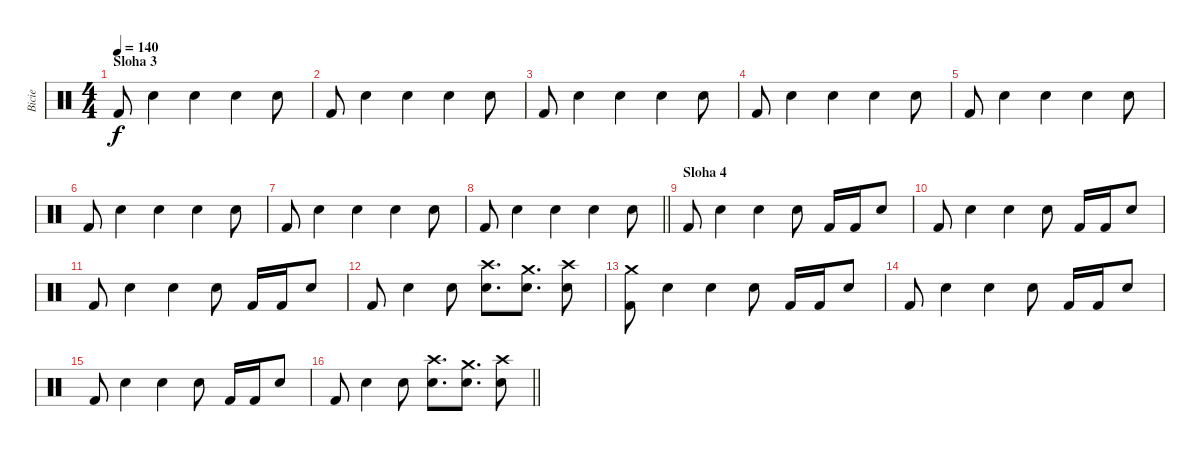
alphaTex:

\track ("Bicie" "Bicie") {instrument percussion}
\staff {score}
\articulation defaults
\ts (4 4)
\section ("" "Sloha 3")
\tempo 140
\clef neutral
\ks c "Kick (hit) 2".8{dy f} "Snare (hit) 2".4 "Snare (hit) 2".4 "Snare (hit) 2".4 "Snare (hit) 2".8
|
"Kick (hit) 2".8 "Snare (hit) 2".4 "Snare (hit) 2".4 "Snare (hit) 2".4 "Snare (hit) 2".8 |
"Kick (hit) 2".8 "Snare (hit) 2".4 "Snare (hit) 2".4 "Snare (hit) 2".4 "Snare (hit) 2".8 |
"Kick (hit) 2".8 "Snare (hit) 2".4 "Snare (hit) 2".4 "Snare (hit) 2".4 "Snare (hit) 2".8 |
"Kick (hit) 2".8 "Snare (hit) 2".4 "Snare (hit) 2".4 "Snare (hit) 2".4 "Snare (hit) 2".8 |
"Kick (hit) 2".8 "Snare (hit) 2".4 "Snare (hit) 2".4 "Snare (hit) 2".4 "Snare (hit) 2".8 |
"Kick (hit) 2".8 "Snare (hit) 2".4 "Snare (hit) 2".4 "Snare (hit) 2".4 "Snare (hit) 2".8 |
\barLineRight lightlight "Kick (hit) 2".8 "Snare (hit) 2".4 "Snare (hit) 2".4 "Snare (hit) 2".4 "Snare (hit) 2".8
|
\section ("" "Sloha 4")
"Kick (hit) 2".8 "Snare (hit) 2".4 "Snare (hit) 2".4 "Snare (hit) 2".8 "Kick (hit) 2".16 "Kick (hit) 2".16 "Snare (hit) 2".8 |
"Kick (hit) 2".8 "Snare (hit) 2".4 "Snare (hit) 2".4 "Snare (hit) 2".8 "Kick (hit) 2".16 "Kick (hit) 2".16 "Snare (hit) 2".8 |
"Kick (hit) 2".8 "Snare (hit) 2".4 "Snare (hit) 2".4 "Snare (hit) 2".8 "Kick (hit) 2".16 "Kick (hit) 2".16 "Snare (hit) 2".8 |
"Kick (hit) 2".8 "Snare (hit) 2".4 "Snare (hit) 2".8 ("Crash high (hit)" "Snare (hit) 2").8{d} ("Crash medium (hit)" "Snare (hit) 2").8{d} ("Crash high (hit)" "Snare (hit) 2").8 |
("Crash medium (hit)" "Kick (hit) 2").8 "Snare (hit) 2".4 "Snare (hit) 2".4 "Snare (hit) 2".8 "Kick (hit) 2".16 "Kick (hit) 2".16 "Snare (hit) 2".8 |
"Kick (hit) 2".8 "Snare (hit) 2".4 "Snare (hit) 2".4 "Snare (hit) 2".8 "Kick (hit) 2".16 "Kick (hit) 2".16 "Snare (hit) 2".8 |
"Kick (hit) 2".8 "Snare (hit) 2".4 "Snare (hit) 2".4 "Snare (hit) 2".8 "Kick (hit) 2".16 "Kick (hit) 2".16 "Snare (hit) 2".8 |
\barLineRight lightlight "Kick (hit) 2".8 "Snare (hit) 2".4 "Snare (hit) 2".8
("Crash high (hit)" "Snare (hit) 2").8{d} ("Crash medium (hit)" "Snare (hit) 2").8{d} ("Crash high (hit)" "Snare (hit) 2").8
